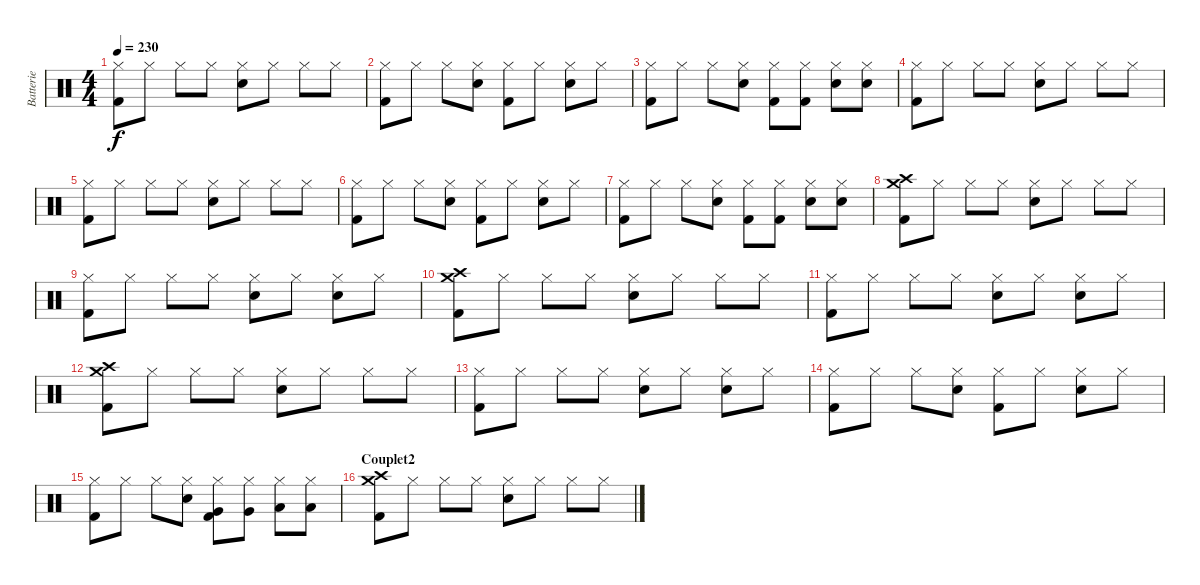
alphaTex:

\track ("Batterie" "Batterie") {instrument percussion}
\staff {score}
\articulation defaults
\ts (4 4)
\tempo 230
\clef neutral
\ks c
("Hi-Hat (closed)" "Kick (hit) 2").8{dy f} "Hi-Hat (closed)".8 "Hi-Hat (closed)".8 "Hi-Hat (closed)".8 ("Hi-Hat (closed)" "Electric Snare (hit)").8 "Hi-Hat (closed)".8 "Hi-Hat (closed)".8 "Hi-Hat (closed)".8 |
("Hi-Hat (closed)" "Kick (hit) 2").8 "Hi-Hat (closed)".8 "Hi-Hat (closed)".8 ("Hi-Hat (closed)" "Electric Snare (hit)").8 ("Hi-Hat (closed)" "Kick (hit) 2").8 "Hi-Hat (closed)".8 ("Hi-Hat (closed)" "Electric Snare (hit)").8 "Hi-Hat (closed)".8 |
("Hi-Hat (closed)" "Kick (hit) 2").8 "Hi-Hat (closed)".8 "Hi-Hat (closed)".8 ("Hi-Hat (closed)" "Electric Snare (hit)").8 ("Hi-Hat (closed)" "Kick (hit) 2").8 ("Hi-Hat (closed)" "Kick (hit) 2").8 ("Hi-Hat (closed)" "Electric Snare (hit)").8 ("Hi-Hat (closed)" "Electric Snare (hit)").8 |
("Hi-Hat (closed)" "Kick (hit) 2").8 "Hi-Hat (closed)".8 "Hi-Hat (closed)".8 "Hi-Hat (closed)".8 ("Hi-Hat (closed)" "Electric Snare (hit)").8 "Hi-Hat (closed)".8 "Hi-Hat (closed)".8 "Hi-Hat (closed)".8 |
("Hi-Hat (closed)" "Kick (hit) 2").8 "Hi-Hat (closed)".8 "Hi-Hat (closed)".8 "Hi-Hat (closed)".8 ("Hi-Hat (closed)" "Electric Snare (hit)").8 "Hi-Hat (closed)".8 "Hi-Hat (closed)".8 "Hi-Hat (closed)".8 |
("Hi-Hat (closed)" "Kick (hit) 2").8 "Hi-Hat (closed)".8 "Hi-Hat (closed)".8 ("Hi-Hat (closed)" "Electric Snare (hit)").8 ("Hi-Hat (closed)" "Kick (hit) 2").8 "Hi-Hat (closed)".8 ("Hi-Hat (closed)" "Electric Snare (hit)").8 "Hi-Hat (closed)".8 |
("Hi-Hat (closed)" "Kick (hit) 2").8 "Hi-Hat (closed)".8 "Hi-Hat (closed)".8 ("Hi-Hat (closed)" "Electric Snare (hit)").8 ("Hi-Hat (closed)" "Kick (hit) 2").8 ("Hi-Hat (closed)" "Kick (hit) 2").8 ("Hi-Hat (closed)" "Electric Snare (hit)").8 ("Hi-Hat (closed)" "Electric Snare (hit)").8 |
("Crash high (hit)" "Crash medium (hit)" "Kick (hit) 2").8 "Hi-Hat (closed)".8 "Hi-Hat (closed)".8 "Hi-Hat (closed)".8 ("Hi-Hat (closed)" "Electric Snare (hit)").8 "Hi-Hat (closed)".8 "Hi-Hat (closed)".8 "Hi-Hat (closed)".8 |
("Hi-Hat (closed)" "Kick (hit) 2").8 "Hi-Hat (closed)".8 "Hi-Hat (closed)".8 "Hi-Hat (closed)".8 ("Hi-Hat (closed)" "Electric Snare (hit)").8 "Hi-Hat (closed)".8 ("Hi-Hat (closed)" "Electric Snare (hit)").8 "Hi-Hat (closed)".8 |
("Crash high (hit)" "Crash medium (hit)" "Kick (hit) 2").8 "Hi-Hat (closed)".8 "Hi-Hat (closed)".8 "Hi-Hat (closed)".8 ("Hi-Hat (closed)" "Electric Snare (hit)").8 "Hi-Hat (closed)".8 "Hi-Hat (closed)".8 "Hi-Hat (closed)".8 |
("Hi-Hat (closed)" "Kick (hit) 2").8 "Hi-Hat (closed)".8 "Hi-Hat (closed)".8 "Hi-Hat (closed)".8 ("Hi-Hat (closed)" "Electric Snare (hit)").8 "Hi-Hat (closed)".8 ("Hi-Hat (closed)" "Electric Snare (hit)").8 "Hi-Hat (closed)".8 |
("Crash high (hit)" "Crash medium (hit)" "Kick (hit) 2").8 "Hi-Hat (closed)".8 "Hi-Hat (closed)".8 "Hi-Hat (closed)".8 ("Hi-Hat (closed)" "Electric Snare (hit)").8 "Hi-Hat (closed)".8 "Hi-Hat (closed)".8 "Hi-Hat (closed)".8 |
("Hi-Hat (closed)" "Kick (hit) 2").8 "Hi-Hat (closed)".8 "Hi-Hat (closed)".8 "Hi-Hat (closed)".8 ("Hi-Hat (closed)" "Electric Snare (hit)").8 "Hi-Hat (closed)".8 ("Hi-Hat (closed)" "Electric Snare (hit)").8 "Hi-Hat (closed)".8 |
("Hi-Hat (closed)" "Kick (hit) 2").8 "Hi-Hat (closed)".8 "Hi-Hat (closed)".8 ("Hi-Hat (closed)" "Electric Snare (hit)").8 ("Hi-Hat (closed)" "Kick (hit) 2").8 "Hi-Hat (closed)".8 ("Hi-Hat (closed)" "Electric Snare (hit)").8 "Hi-Hat (closed)".8 |
("Hi-Hat (closed)" "Kick (hit) 2").8 "Hi-Hat (closed)".8 "Hi-Hat (closed)".8 ("Hi-Hat (closed)" "Electric Snare (hit)").8 ("Hi-Hat (closed)" "Very Low Tom (hit)" "Kick (hit) 2").8 ("Hi-Hat (closed)" "Very Low Tom (hit)").8 ("Hi-Hat (closed)" "Low Floor Tom (hit)").8 ("Hi-Hat (closed)" "Low Floor Tom (hit)").8 |
\section ("" "Couplet2")
("Crash high (hit)" "Crash medium (hit)" "Kick (hit) 2").8 "Hi-Hat (closed)".8 "Hi-Hat (closed)".8 "Hi-Hat (closed)".8 ("Hi-Hat (closed)" "Electric Snare (hit)").8 "Hi-Hat (closed)".8 "Hi-Hat (closed)".8 "Hi-Hat (closed)".8
